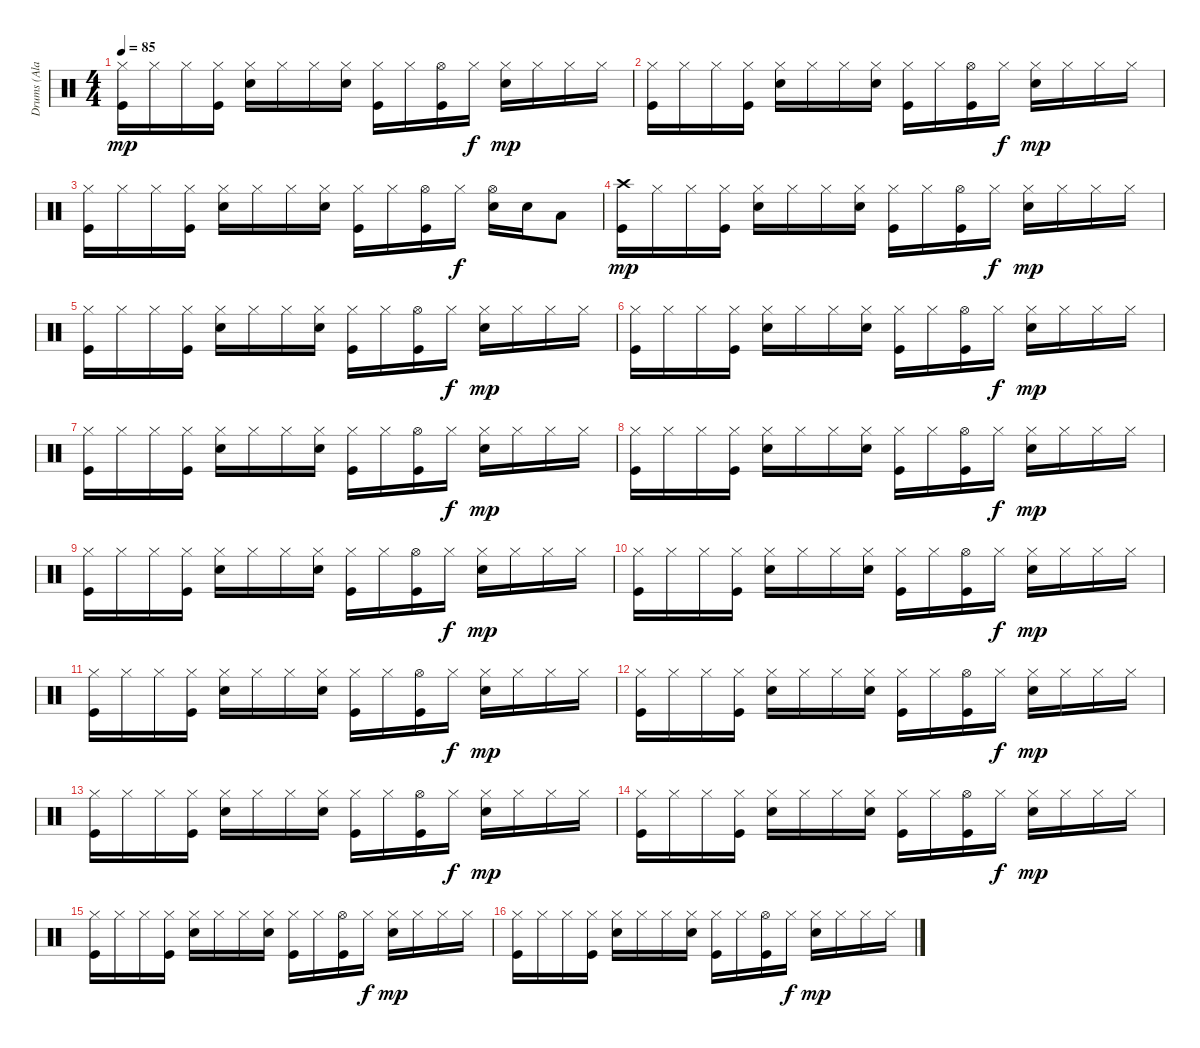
\track ("Drums (Alan White)" "Drums (Ala") {instrument percussion}
\staff {score}
\articulation defaults
\ts (4 4)
\tempo 85
\clef neutral
\ks c
("Hi-Hat (closed)" "Kick (hit)").16{dy mp} "Hi-Hat (closed)".16 "Hi-Hat (closed)".16 ("Hi-Hat (closed)" "Kick (hit)").16 ("Hi-Hat (closed)" "Snare (hit) 2").16 "Hi-Hat (closed)".16 "Hi-Hat (closed)".16 ("Hi-Hat (closed)" "Snare (hit) 2").16 ("Hi-Hat (closed)" "Kick (hit)").16 "Hi-Hat (closed)".16 ("Hi-Hat (open)" "Kick (hit)").16 "Hi-Hat (closed)".16{dy f} ("Hi-Hat (closed)" "Snare (hit) 2").16{dy mp} "Hi-Hat (closed)".16 "Hi-Hat (closed)".16 "Hi-Hat (closed)".16 |
("Hi-Hat (closed)" "Kick (hit)").16 "Hi-Hat (closed)".16 "Hi-Hat (closed)".16 ("Hi-Hat (closed)" "Kick (hit)").16 ("Hi-Hat (closed)" "Snare (hit) 2").16 "Hi-Hat (closed)".16 "Hi-Hat (closed)".16 ("Hi-Hat (closed)" "Snare (hit) 2").16 ("Hi-Hat (closed)" "Kick (hit)").16 "Hi-Hat (closed)".16 ("Hi-Hat (open)" "Kick (hit)").16 "Hi-Hat (closed)".16{dy f} ("Hi-Hat (closed)" "Snare (hit) 2").16{dy mp} "Hi-Hat (closed)".16 "Hi-Hat (closed)".16 "Hi-Hat (closed)".16 |
("Hi-Hat (closed)" "Kick (hit)").16 "Hi-Hat (closed)".16 "Hi-Hat (closed)".16 ("Hi-Hat (closed)" "Kick (hit)").16 ("Hi-Hat (closed)" "Snare (hit) 2").16 "Hi-Hat (closed)".16 "Hi-Hat (closed)".16 ("Hi-Hat (closed)" "Snare (hit) 2").16 ("Hi-Hat (closed)" "Kick (hit)").16 "Hi-Hat (closed)".16 ("Hi-Hat (open)" "Kick (hit)").16 "Hi-Hat (closed)".16{dy f} ("Hi-Hat (open)" "Snare (hit) 2").16 "Snare (hit) 2".16 "Low Tom (hit)".8 |
("Crash high (hit)" "Kick (hit)").16{dy mp} "Hi-Hat (closed)".16 "Hi-Hat (closed)".16 ("Hi-Hat (closed)" "Kick (hit)").16 ("Hi-Hat (closed)" "Snare (hit) 2").16 "Hi-Hat (closed)".16 "Hi-Hat (closed)".16 ("Hi-Hat (closed)" "Snare (hit) 2").16 ("Hi-Hat (closed)" "Kick (hit)").16 "Hi-Hat (closed)".16 ("Hi-Hat (open)" "Kick (hit)").16 "Hi-Hat (closed)".16{dy f} ("Hi-Hat (closed)" "Snare (hit) 2").16{dy mp} "Hi-Hat (closed)".16 "Hi-Hat (closed)".16 "Hi-Hat (closed)".16 |
("Hi-Hat (closed)" "Kick (hit)").16 "Hi-Hat (closed)".16 "Hi-Hat (closed)".16 ("Hi-Hat (closed)" "Kick (hit)").16 ("Hi-Hat (closed)" "Snare (hit) 2").16 "Hi-Hat (closed)".16 "Hi-Hat (closed)".16 ("Hi-Hat (closed)" "Snare (hit) 2").16 ("Hi-Hat (closed)" "Kick (hit)").16 "Hi-Hat (closed)".16 ("Hi-Hat (open)" "Kick (hit)").16 "Hi-Hat (closed)".16{dy f} ("Hi-Hat (closed)" "Snare (hit) 2").16{dy mp} "Hi-Hat (closed)".16 "Hi-Hat (closed)".16 "Hi-Hat (closed)".16 |
("Hi-Hat (closed)" "Kick (hit)").16 "Hi-Hat (closed)".16 "Hi-Hat (closed)".16 ("Hi-Hat (closed)" "Kick (hit)").16 ("Hi-Hat (closed)" "Snare (hit) 2").16 "Hi-Hat (closed)".16 "Hi-Hat (closed)".16 ("Hi-Hat (closed)" "Snare (hit) 2").16 ("Hi-Hat (closed)" "Kick (hit)").16 "Hi-Hat (closed)".16 ("Hi-Hat (open)" "Kick (hit)").16 "Hi-Hat (closed)".16{dy f} ("Hi-Hat (closed)" "Snare (hit) 2").16{dy mp} "Hi-Hat (closed)".16 "Hi-Hat (closed)".16 "Hi-Hat (closed)".16 |
("Hi-Hat (closed)" "Kick (hit)").16 "Hi-Hat (closed)".16 "Hi-Hat (closed)".16 ("Hi-Hat (closed)" "Kick (hit)").16 ("Hi-Hat (closed)" "Snare (hit) 2").16 "Hi-Hat (closed)".16 "Hi-Hat (closed)".16 ("Hi-Hat (closed)" "Snare (hit) 2").16 ("Hi-Hat (closed)" "Kick (hit)").16 "Hi-Hat (closed)".16 ("Hi-Hat (open)" "Kick (hit)").16 "Hi-Hat (closed)".16{dy f} ("Hi-Hat (closed)" "Snare (hit) 2").16{dy mp} "Hi-Hat (closed)".16 "Hi-Hat (closed)".16 "Hi-Hat (closed)".16 |
("Hi-Hat (closed)" "Kick (hit)").16 "Hi-Hat (closed)".16 "Hi-Hat (closed)".16 ("Hi-Hat (closed)" "Kick (hit)").16 ("Hi-Hat (closed)" "Snare (hit) 2").16 "Hi-Hat (closed)".16 "Hi-Hat (closed)".16 ("Hi-Hat (closed)" "Snare (hit) 2").16 ("Hi-Hat (closed)" "Kick (hit)").16 "Hi-Hat (closed)".16 ("Hi-Hat (open)" "Kick (hit)").16 "Hi-Hat (closed)".16{dy f} ("Hi-Hat (closed)" "Snare (hit) 2").16{dy mp} "Hi-Hat (closed)".16 "Hi-Hat (closed)".16 "Hi-Hat (closed)".16 |
("Hi-Hat (closed)" "Kick (hit)").16 "Hi-Hat (closed)".16 "Hi-Hat (closed)".16 ("Hi-Hat (closed)" "Kick (hit)").16 ("Hi-Hat (closed)" "Snare (hit) 2").16 "Hi-Hat (closed)".16 "Hi-Hat (closed)".16 ("Hi-Hat (closed)" "Snare (hit) 2").16 ("Hi-Hat (closed)" "Kick (hit)").16 "Hi-Hat (closed)".16 ("Hi-Hat (open)" "Kick (hit)").16 "Hi-Hat (closed)".16{dy f} ("Hi-Hat (closed)" "Snare (hit) 2").16{dy mp} "Hi-Hat (closed)".16 "Hi-Hat (closed)".16 "Hi-Hat (closed)".16 |
("Hi-Hat (closed)" "Kick (hit)").16 "Hi-Hat (closed)".16 "Hi-Hat (closed)".16 ("Hi-Hat (closed)" "Kick (hit)").16 ("Hi-Hat (closed)" "Snare (hit) 2").16 "Hi-Hat (closed)".16 "Hi-Hat (closed)".16 ("Hi-Hat (closed)" "Snare (hit) 2").16 ("Hi-Hat (closed)" "Kick (hit)").16 "Hi-Hat (closed)".16 ("Hi-Hat (open)" "Kick (hit)").16 "Hi-Hat (closed)".16{dy f} ("Hi-Hat (closed)" "Snare (hit) 2").16{dy mp} "Hi-Hat (closed)".16 "Hi-Hat (closed)".16 "Hi-Hat (closed)".16 |
("Hi-Hat (closed)" "Kick (hit)").16 "Hi-Hat (closed)".16 "Hi-Hat (closed)".16 ("Hi-Hat (closed)" "Kick (hit)").16 ("Hi-Hat (closed)" "Snare (hit) 2").16 "Hi-Hat (closed)".16 "Hi-Hat (closed)".16 ("Hi-Hat (closed)" "Snare (hit) 2").16 ("Hi-Hat (closed)" "Kick (hit)").16 "Hi-Hat (closed)".16 ("Hi-Hat (open)" "Kick (hit)").16 "Hi-Hat (closed)".16{dy f} ("Hi-Hat (closed)" "Snare (hit) 2").16{dy mp} "Hi-Hat (closed)".16 "Hi-Hat (closed)".16 "Hi-Hat (closed)".16 |
("Hi-Hat (closed)" "Kick (hit)").16 "Hi-Hat (closed)".16 "Hi-Hat (closed)".16 ("Hi-Hat (closed)" "Kick (hit)").16 ("Hi-Hat (closed)" "Snare (hit) 2").16 "Hi-Hat (closed)".16 "Hi-Hat (closed)".16 ("Hi-Hat (closed)" "Snare (hit) 2").16 ("Hi-Hat (closed)" "Kick (hit)").16 "Hi-Hat (closed)".16 ("Hi-Hat (open)" "Kick (hit)").16 "Hi-Hat (closed)".16{dy f} ("Hi-Hat (closed)" "Snare (hit) 2").16{dy mp} "Hi-Hat (closed)".16 "Hi-Hat (closed)".16 "Hi-Hat (closed)".16 |
("Hi-Hat (closed)" "Kick (hit)").16 "Hi-Hat (closed)".16 "Hi-Hat (closed)".16 ("Hi-Hat (closed)" "Kick (hit)").16 ("Hi-Hat (closed)" "Snare (hit) 2").16 "Hi-Hat (closed)".16 "Hi-Hat (closed)".16 ("Hi-Hat (closed)" "Snare (hit) 2").16 ("Hi-Hat (closed)" "Kick (hit)").16 "Hi-Hat (closed)".16 ("Hi-Hat (open)" "Kick (hit)").16 "Hi-Hat (closed)".16{dy f} ("Hi-Hat (closed)" "Snare (hit) 2").16{dy mp} "Hi-Hat (closed)".16 "Hi-Hat (closed)".16 "Hi-Hat (closed)".16 |
("Hi-Hat (closed)" "Kick (hit)").16 "Hi-Hat (closed)".16 "Hi-Hat (closed)".16 ("Hi-Hat (closed)" "Kick (hit)").16 ("Hi-Hat (closed)" "Snare (hit) 2").16 "Hi-Hat (closed)".16 "Hi-Hat (closed)".16 ("Hi-Hat (closed)" "Snare (hit) 2").16 ("Hi-Hat (closed)" "Kick (hit)").16 "Hi-Hat (closed)".16 ("Hi-Hat (open)" "Kick (hit)").16 "Hi-Hat (closed)".16{dy f} ("Hi-Hat (closed)" "Snare (hit) 2").16{dy mp} "Hi-Hat (closed)".16 "Hi-Hat (closed)".16 "Hi-Hat (closed)".16 |
("Hi-Hat (closed)" "Kick (hit)").16 "Hi-Hat (closed)".16 "Hi-Hat (closed)".16 ("Hi-Hat (closed)" "Kick (hit)").16 ("Hi-Hat (closed)" "Snare (hit) 2").16 "Hi-Hat (closed)".16 "Hi-Hat (closed)".16 ("Hi-Hat (closed)" "Snare (hit) 2").16 ("Hi-Hat (closed)" "Kick (hit)").16 "Hi-Hat (closed)".16 ("Hi-Hat (open)" "Kick (hit)").16 "Hi-Hat (closed)".16{dy f} ("Hi-Hat (closed)" "Snare (hit) 2").16{dy mp} "Hi-Hat (closed)".16 "Hi-Hat (closed)".16 "Hi-Hat (closed)".16 |
("Hi-Hat (closed)" "Kick (hit)").16 "Hi-Hat (closed)".16 "Hi-Hat (closed)".16 ("Hi-Hat (closed)" "Kick (hit)").16 ("Hi-Hat (closed)" "Snare (hit) 2").16 "Hi-Hat (closed)".16 "Hi-Hat (closed)".16 ("Hi-Hat (closed)" "Snare (hit) 2").16 ("Hi-Hat (closed)" "Kick (hit)").16 "Hi-Hat (closed)".16 ("Hi-Hat (open)" "Kick (hit)").16 "Hi-Hat (closed)".16{dy f} ("Hi-Hat (closed)" "Snare (hit) 2").16{dy mp} "Hi-Hat (closed)".16 "Hi-Hat (closed)".16 "Hi-Hat (closed)".16
